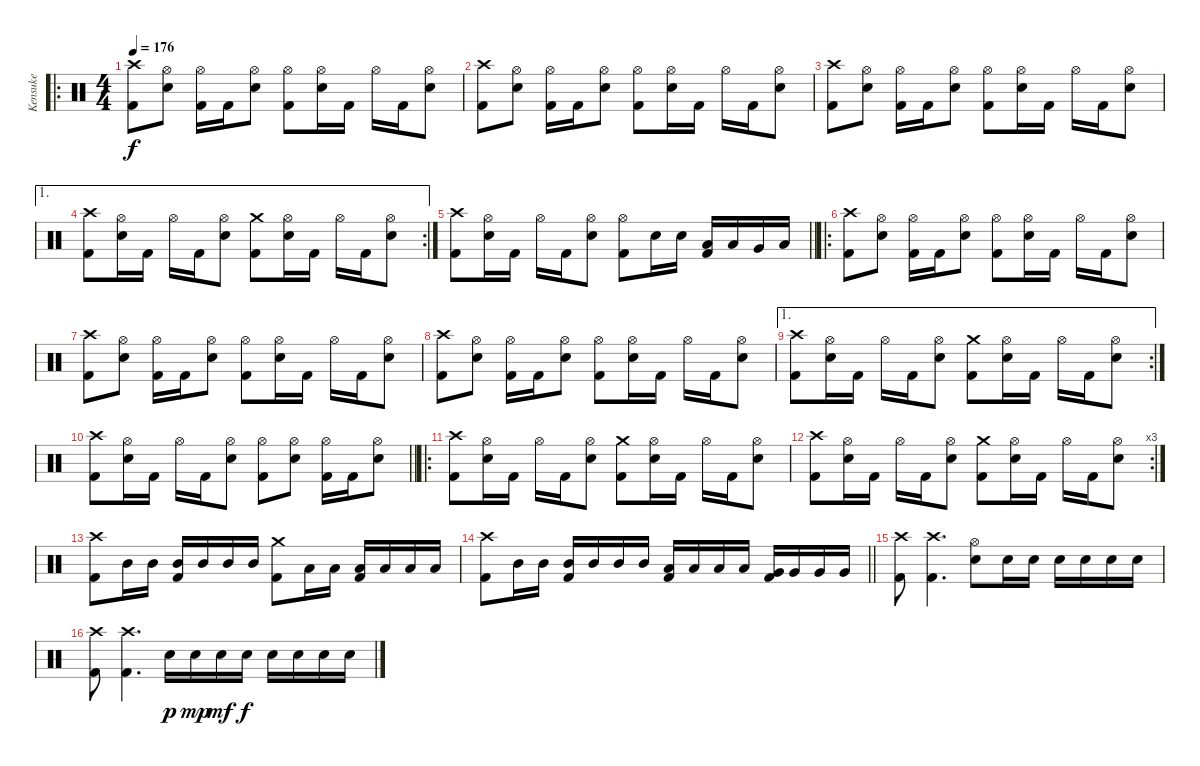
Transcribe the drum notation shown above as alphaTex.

\track ("Kensuke" "Kensuke") {instrument percussion}
\staff {score}
\articulation defaults
\ro
\ts (4 4)
\section ("" "")
\tempo 176
\clef neutral
\ks c
("Crash high (hit)" "Kick (hit) 2").8{dy f} ("Hi-Hat (open)" "Electric Snare (hit)").8 ("Hi-Hat (open)" "Kick (hit) 2").16 "Kick (hit) 2".16 ("Hi-Hat (open)" "Electric Snare (hit)").8 ("Hi-Hat (open)" "Kick (hit) 2").8 ("Hi-Hat (open)" "Electric Snare (hit)").16 "Kick (hit) 2".16 "Hi-Hat (open)".16 "Kick (hit) 2".16 ("Hi-Hat (open)" "Electric Snare (hit)").8 |
("Crash high (hit)" "Kick (hit) 2").8 ("Hi-Hat (open)" "Electric Snare (hit)").8 ("Hi-Hat (open)" "Kick (hit) 2").16 "Kick (hit) 2".16 ("Hi-Hat (open)" "Electric Snare (hit)").8 ("Hi-Hat (open)" "Kick (hit) 2").8 ("Hi-Hat (open)" "Electric Snare (hit)").16 "Kick (hit) 2".16 "Hi-Hat (open)".16 "Kick (hit) 2".16 ("Hi-Hat (open)" "Electric Snare (hit)").8 |
("Crash high (hit)" "Kick (hit) 2").8 ("Hi-Hat (open)" "Electric Snare (hit)").8 ("Hi-Hat (open)" "Kick (hit) 2").16 "Kick (hit) 2".16 ("Hi-Hat (open)" "Electric Snare (hit)").8 ("Hi-Hat (open)" "Kick (hit) 2").8 ("Hi-Hat (open)" "Electric Snare (hit)").16 "Kick (hit) 2".16 "Hi-Hat (open)".16 "Kick (hit) 2".16 ("Hi-Hat (open)" "Electric Snare (hit)").8 |
\ae 1
\rc 2
("Crash high (hit)" "Kick (hit) 2").8 ("Hi-Hat (open)" "Electric Snare (hit)").16 "Kick (hit) 2".16 "Hi-Hat (open)".16 "Kick (hit) 2".16 ("Hi-Hat (open)" "Electric Snare (hit)").8 ("Crash medium (hit)" "Kick (hit) 2").8 ("Hi-Hat (open)" "Electric Snare (hit)").16 "Kick (hit) 2".16 "Hi-Hat (open)".16 "Kick (hit) 2".16 ("Hi-Hat (open)" "Electric Snare (hit)").8 |
\barLineRight lightlight
("Crash high (hit)" "Kick (hit) 2").8 ("Hi-Hat (open)" "Electric Snare (hit)").16 "Kick (hit) 2".16 "Hi-Hat (open)".16 "Kick (hit) 2".16 ("Hi-Hat (open)" "Electric Snare (hit)").8 ("Hi-Hat (open)" "Kick (hit) 2").8 "Electric Snare (hit)".16 "Electric Snare (hit)".16 ("Low Tom (hit)" "Kick (hit) 2").16 "Low Tom (hit)".16 "Very Low Tom (hit)".16 "Low Floor Tom (hit)".16 |
\ro
\section ("" "")
("Crash high (hit)" "Kick (hit) 2").8 ("Hi-Hat (open)" "Electric Snare (hit)").8 ("Hi-Hat (open)" "Kick (hit) 2").16 "Kick (hit) 2".16 ("Hi-Hat (open)" "Electric Snare (hit)").8 ("Hi-Hat (open)" "Kick (hit) 2").8 ("Hi-Hat (open)" "Electric Snare (hit)").16 "Kick (hit) 2".16 "Hi-Hat (open)".16 "Kick (hit) 2".16 ("Hi-Hat (open)" "Electric Snare (hit)").8 |
("Crash high (hit)" "Kick (hit) 2").8 ("Hi-Hat (open)" "Electric Snare (hit)").8 ("Hi-Hat (open)" "Kick (hit) 2").16 "Kick (hit) 2".16 ("Hi-Hat (open)" "Electric Snare (hit)").8 ("Hi-Hat (open)" "Kick (hit) 2").8 ("Hi-Hat (open)" "Electric Snare (hit)").16 "Kick (hit) 2".16 "Hi-Hat (open)".16 "Kick (hit) 2".16 ("Hi-Hat (open)" "Electric Snare (hit)").8 |
("Crash high (hit)" "Kick (hit) 2").8 ("Hi-Hat (open)" "Electric Snare (hit)").8 ("Hi-Hat (open)" "Kick (hit) 2").16 "Kick (hit) 2".16 ("Hi-Hat (open)" "Electric Snare (hit)").8 ("Hi-Hat (open)" "Kick (hit) 2").8 ("Hi-Hat (open)" "Electric Snare (hit)").16 "Kick (hit) 2".16 "Hi-Hat (open)".16 "Kick (hit) 2".16 ("Hi-Hat (open)" "Electric Snare (hit)").8 |
\ae 1
\rc 2
("Crash high (hit)" "Kick (hit) 2").8 ("Hi-Hat (open)" "Electric Snare (hit)").16 "Kick (hit) 2".16 "Hi-Hat (open)".16 "Kick (hit) 2".16 ("Hi-Hat (open)" "Electric Snare (hit)").8 ("Crash medium (hit)" "Kick (hit) 2").8 ("Hi-Hat (open)" "Electric Snare (hit)").16 "Kick (hit) 2".16 "Hi-Hat (open)".16 "Kick (hit) 2".16 ("Hi-Hat (open)" "Electric Snare (hit)").8 |
\barLineRight lightlight
("Crash high (hit)" "Kick (hit) 2").8 ("Hi-Hat (open)" "Electric Snare (hit)").16 "Kick (hit) 2".16 "Hi-Hat (open)".16 "Kick (hit) 2".16 ("Hi-Hat (open)" "Electric Snare (hit)").8 ("Hi-Hat (open)" "Kick (hit) 2").8 ("Hi-Hat (open)" "Electric Snare (hit)").8 ("Hi-Hat (open)" "Kick (hit) 2").16 "Kick (hit) 2".16 ("Hi-Hat (open)" "Electric Snare (hit)").8 |
\ro
\section ("" "")
("Crash high (hit)" "Kick (hit) 2").8 ("Hi-Hat (open)" "Electric Snare (hit)").16 "Kick (hit) 2".16 "Hi-Hat (open)".16 "Kick (hit) 2".16 ("Hi-Hat (open)" "Electric Snare (hit)").8 ("Crash medium (hit)" "Kick (hit) 2").8 ("Hi-Hat (open)" "Electric Snare (hit)").16 "Kick (hit) 2".16 "Hi-Hat (open)".16 "Kick (hit) 2".16 ("Hi-Hat (open)" "Electric Snare (hit)").8 |
\rc 3
("Crash high (hit)" "Kick (hit) 2").8 ("Hi-Hat (open)" "Electric Snare (hit)").16 "Kick (hit) 2".16 "Hi-Hat (open)".16 "Kick (hit) 2".16 ("Hi-Hat (open)" "Electric Snare (hit)").8 ("Crash medium (hit)" "Kick (hit) 2").8 ("Hi-Hat (open)" "Electric Snare (hit)").16 "Kick (hit) 2".16 "Hi-Hat (open)".16 "Kick (hit) 2".16 ("Hi-Hat (open)" "Electric Snare (hit)").8 |
("Crash high (hit)" "Kick (hit) 2").8 "Mid Tom (hit)".16 "Mid Tom (hit)".16 ("Mid Tom (hit)" "Kick (hit) 2").16 "Mid Tom (hit)".16 "Mid Tom (hit)".16 "Mid Tom (hit)".16 ("Crash medium (hit)" "Kick (hit) 2").8 "Low Tom (hit)".16 "Low Tom (hit)".16 ("Low Tom (hit)" "Kick (hit) 2").16 "Low Tom (hit)".16 "Low Tom (hit)".16 "Low Tom (hit)".16 |
\barLineRight lightlight
("Crash high (hit)" "Kick (hit) 2").8 "Mid Tom (hit)".16 "Mid Tom (hit)".16 ("Mid Tom (hit)" "Kick (hit) 2").16 "Mid Tom (hit)".16 "Mid Tom (hit)".16 "Mid Tom (hit)".16 ("Low Tom (hit)" "Kick (hit) 2").16 "Low Tom (hit)".16 "Low Tom (hit)".16 "Low Tom (hit)".16 ("Very Low Tom (hit)" "Kick (hit) 2").16 "Very Low Tom (hit)".16 "Very Low Tom (hit)".16 "Very Low Tom (hit)".16 |
\section ("" "")
("Crash high (hit)" "Kick (hit) 2").8 ("Crash high (hit)" "Kick (hit) 2").4{d} ("Hi-Hat (open)" "Electric Snare (hit)").8 "Electric Snare (hit)".16 "Electric Snare (hit)".16 "Electric Snare (hit)".16 "Electric Snare (hit)".16 "Electric Snare (hit)".16 "Electric Snare (hit)".16 |
("Crash high (hit)" "Kick (hit) 2").8 ("Crash high (hit)" "Kick (hit) 2").4{d} "Electric Snare (hit)".16{dy p} "Electric Snare (hit)".16{dy mp} "Electric Snare (hit)".16{dy mf} "Electric Snare (hit)".16{dy f} "Electric Snare (hit)".16 "Electric Snare (hit)".16 "Electric Snare (hit)".16 "Electric Snare (hit)".16
